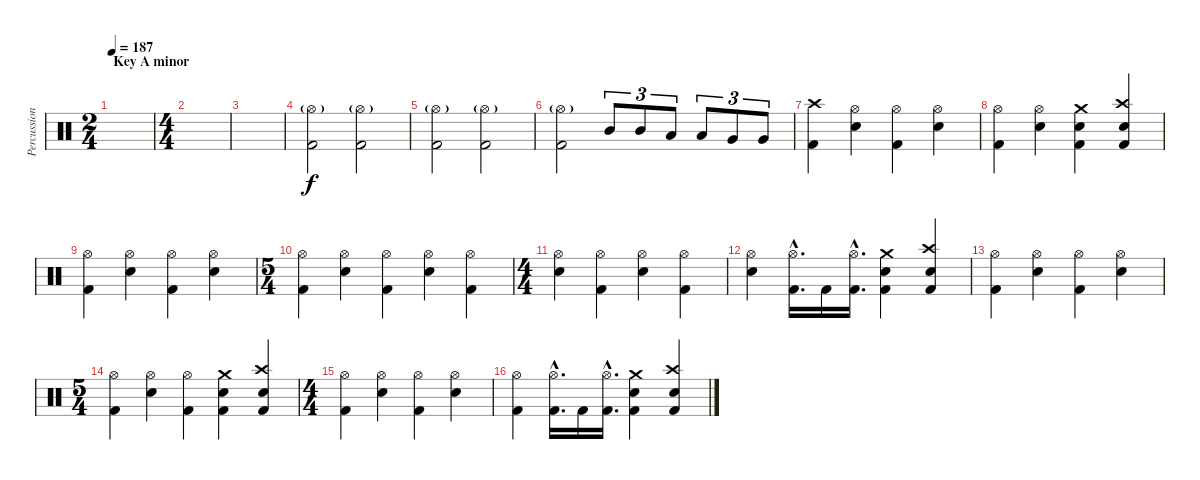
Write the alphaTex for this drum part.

\track ("Percussion" "Percussion") {instrument percussion}
\staff {score}
\articulation defaults
\ts (2 4)
\section ("" "Key A minor")
\tempo 187
\clef neutral
\ks aminor
|
\ts (4 4)
|
|
("Hi-Hat (open)"{g} "Kick (hit) 2").2 ("Hi-Hat (open)"{g} "Kick (hit) 2").2 |
("Hi-Hat (open)"{g} "Kick (hit) 2").2 ("Hi-Hat (open)"{g} "Kick (hit) 2").2 |
("Hi-Hat (open)"{g} "Kick (hit) 2").2 "Mid Tom (hit)".8{tu (3 2) dy f} "Mid Tom (hit)".8{tu (3 2)} "Low Tom (hit)".8{tu (3 2)} "Low Tom (hit)".8{tu (3 2)} "Very Low Tom (hit)".8{tu (3 2)} "Very Low Tom (hit)".8{tu (3 2)} |
("Crash high (hit)" "Kick (hit) 2").4 ("Hi-Hat (open)" "Snare (hit) 2").4 ("Hi-Hat (open)" "Kick (hit) 2").4 ("Hi-Hat (open)" "Snare (hit) 2").4 |
("Hi-Hat (open)" "Kick (hit) 2").4 ("Hi-Hat (open)" "Snare (hit) 2").4 ("Crash medium (hit)" "Snare (hit) 2" "Kick (hit) 2").4 ("Crash high (hit)" "Snare (hit) 2" "Kick (hit) 2").4 |
("Hi-Hat (open)" "Kick (hit) 2").4 ("Hi-Hat (open)" "Snare (hit) 2").4 ("Hi-Hat (open)" "Kick (hit) 2").4 ("Hi-Hat (open)" "Snare (hit) 2").4 |
\ts (5 4)
("Hi-Hat (open)" "Kick (hit) 2").4 ("Hi-Hat (open)" "Snare (hit) 2").4 ("Hi-Hat (open)" "Kick (hit) 2").4 ("Hi-Hat (open)" "Snare (hit) 2").4 ("Hi-Hat (open)" "Kick (hit) 2").4 |
\ts (4 4)
("Hi-Hat (open)" "Snare (hit) 2").4 ("Hi-Hat (open)" "Kick (hit) 2").4 ("Hi-Hat (open)" "Snare (hit) 2").4 ("Hi-Hat (open)" "Kick (hit) 2").4 |
("Hi-Hat (open)" "Snare (hit) 2").4 ("Hi-Hat (open)"{hac} "Kick (hit) 2"{hac}).16{d} "Kick (hit) 2".16 ("Hi-Hat (open)"{hac} "Kick (hit) 2"{hac}).16{d} ("Crash medium (hit)" "Snare (hit) 2" "Kick (hit) 2").4 ("Crash high (hit)" "Snare (hit) 2" "Kick (hit) 2").4 |
("Hi-Hat (open)" "Kick (hit) 2").4 ("Hi-Hat (open)" "Snare (hit) 2").4 ("Hi-Hat (open)" "Kick (hit) 2").4 ("Hi-Hat (open)" "Snare (hit) 2").4 |
\ts (5 4)
("Hi-Hat (open)" "Kick (hit) 2").4 ("Hi-Hat (open)" "Snare (hit) 2").4 ("Hi-Hat (open)" "Kick (hit) 2").4 ("Crash medium (hit)" "Snare (hit) 2" "Kick (hit) 2").4 ("Crash high (hit)" "Snare (hit) 2" "Kick (hit) 2").4 |
\ts (4 4)
("Hi-Hat (open)" "Kick (hit) 2").4 ("Hi-Hat (open)" "Snare (hit) 2").4 ("Hi-Hat (open)" "Kick (hit) 2").4 ("Hi-Hat (open)" "Snare (hit) 2").4 |
("Hi-Hat (open)" "Kick (hit) 2").4 ("Hi-Hat (open)"{hac} "Kick (hit) 2"{hac}).16{d} "Kick (hit) 2".16 ("Hi-Hat (open)"{hac} "Kick (hit) 2"{hac}).16{d} ("Crash medium (hit)" "Snare (hit) 2" "Kick (hit) 2").4 ("Crash high (hit)" "Snare (hit) 2" "Kick (hit) 2").4
